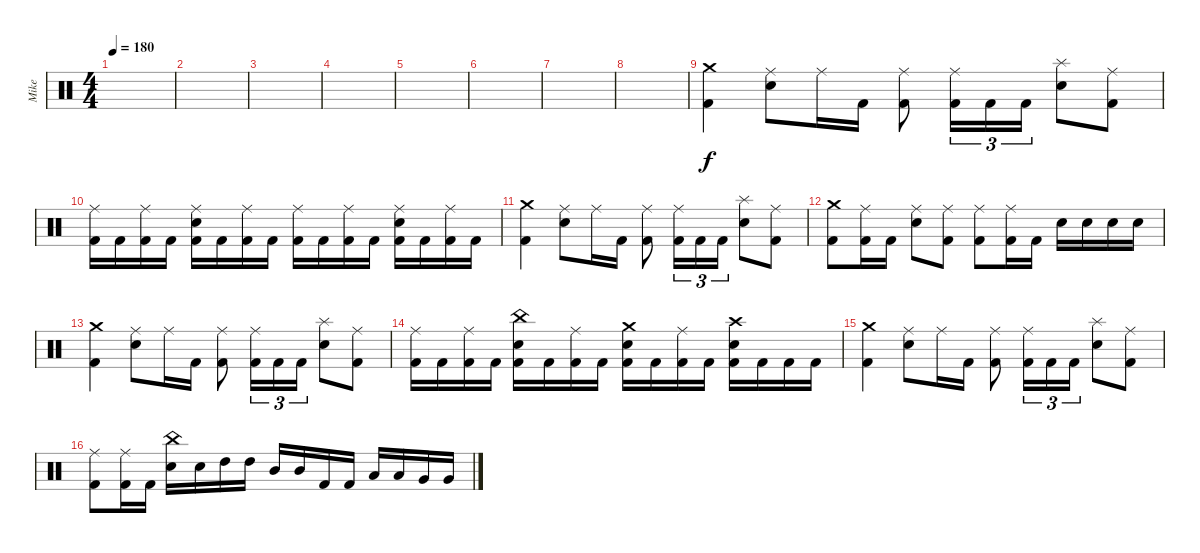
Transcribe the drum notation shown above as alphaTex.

\track ("Mike" "Mike") {instrument percussion}
\staff {score}
\articulation defaults
\ts (4 4)
\tempo 180
\clef neutral
\ks c
|
|
|
|
|
|
|
|
("Crash medium (hit)" "Kick (hit) 2").4 ("Ride (middle)" "Electric Snare (hit)").8 "Ride (middle)".16 "Kick (hit) 2".16 ("Ride (middle)" "Kick (hit) 2").8 ("Ride (middle)" "Kick (hit) 2").16{tu (3 2)} "Kick (hit) 2".16{tu (3 2)} "Kick (hit) 2".16{tu (3 2)} ("Splash (hit)" "Electric Snare (hit)").8 ("Ride (middle)" "Kick (hit) 2").8 |
("Ride (middle)" "Kick (hit) 2").16 "Kick (hit) 2".16 ("Ride (middle)" "Kick (hit) 2").16 "Kick (hit) 2".16 ("Ride (middle)" "Electric Snare (hit)" "Kick (hit) 2").16 "Kick (hit) 2".16 ("Ride (middle)" "Kick (hit) 2").16 "Kick (hit) 2".16 ("Ride (middle)" "Kick (hit) 2").16 "Kick (hit) 2".16 ("Ride (middle)" "Kick (hit) 2").16 "Kick (hit) 2".16 ("Ride (middle)" "Electric Snare (hit)" "Kick (hit) 2").16 "Kick (hit) 2".16 ("Ride (middle)" "Kick (hit) 2").16 "Kick (hit) 2".16 |
("Crash medium (hit)" "Kick (hit) 2").4 ("Ride (middle)" "Electric Snare (hit)").8 "Ride (middle)".16 "Kick (hit) 2".16 ("Ride (middle)" "Kick (hit) 2").8 ("Ride (middle)" "Kick (hit) 2").16{tu (3 2)} "Kick (hit) 2".16{tu (3 2)} "Kick (hit) 2".16{tu (3 2)} ("Splash (hit)" "Electric Snare (hit)").8 ("Ride (middle)" "Kick (hit) 2").8 |
("Crash medium (hit)" "Kick (hit) 2").8 ("Ride (middle)" "Kick (hit) 2").16 "Kick (hit) 2".16 ("Ride (middle)" "Electric Snare (hit)").8 ("Ride (middle)" "Kick (hit) 2").8 ("Ride (middle)" "Kick (hit) 2").8 ("Ride (middle)" "Kick (hit) 2").16 "Kick (hit) 2".16 "Electric Snare (hit)".16 "Electric Snare (hit)".16 "Electric Snare (hit)".16 "Electric Snare (hit)".16 |
("Crash medium (hit)" "Kick (hit) 2").4 ("Ride (middle)" "Electric Snare (hit)").8 "Ride (middle)".16 "Kick (hit) 2".16 ("Ride (middle)" "Kick (hit) 2").8 ("Ride (middle)" "Kick (hit) 2").16{tu (3 2)} "Kick (hit) 2".16{tu (3 2)} "Kick (hit) 2".16{tu (3 2)} ("Splash (hit)" "Electric Snare (hit)").8 ("Ride (middle)" "Kick (hit) 2").8 |
("Ride (middle)" "Kick (hit) 2").16 "Kick (hit) 2".16 ("Ride (middle)" "Kick (hit) 2").16 "Kick (hit) 2".16 ("China (hit)" "Electric Snare (hit)" "Kick (hit) 2").16 "Kick (hit) 2".16 ("Ride (middle)" "Kick (hit) 2").16 "Kick (hit) 2".16 ("Crash medium (hit)" "Electric Snare (hit)" "Kick (hit) 2").16 "Kick (hit) 2".16 ("Ride (middle)" "Kick (hit) 2").16 "Kick (hit) 2".16 ("Crash high (hit)" "Electric Snare (hit)" "Kick (hit) 2").16 "Kick (hit) 2".16 "Kick (hit) 2".16 "Kick (hit) 2".16 |
("Crash medium (hit)" "Kick (hit) 2").4 ("Ride (middle)" "Electric Snare (hit)").8 "Ride (middle)".16 "Kick (hit) 2".16 ("Ride (middle)" "Kick (hit) 2").8 ("Ride (middle)" "Kick (hit) 2").16{tu (3 2)} "Kick (hit) 2".16{tu (3 2)} "Kick (hit) 2".16{tu (3 2)} ("Splash (hit)" "Electric Snare (hit)").8 ("Ride (middle)" "Kick (hit) 2").8 |
("Ride (middle)" "Kick (hit) 2").8 ("Ride (middle)" "Kick (hit) 2").16 "Kick (hit) 2".16 ("China (hit)" "Electric Snare (hit)").16 "Electric Snare (hit)".16 "High Tom (hit)".16 "High Tom (hit)".16 "Mid Tom (hit)".16 "Mid Tom (hit)".16 "Kick (hit) 2".16 "Kick (hit) 2".16 "Low Tom (hit)".16 "Low Tom (hit)".16 "Very Low Tom (hit)".16 "Very Low Tom (hit)".16
